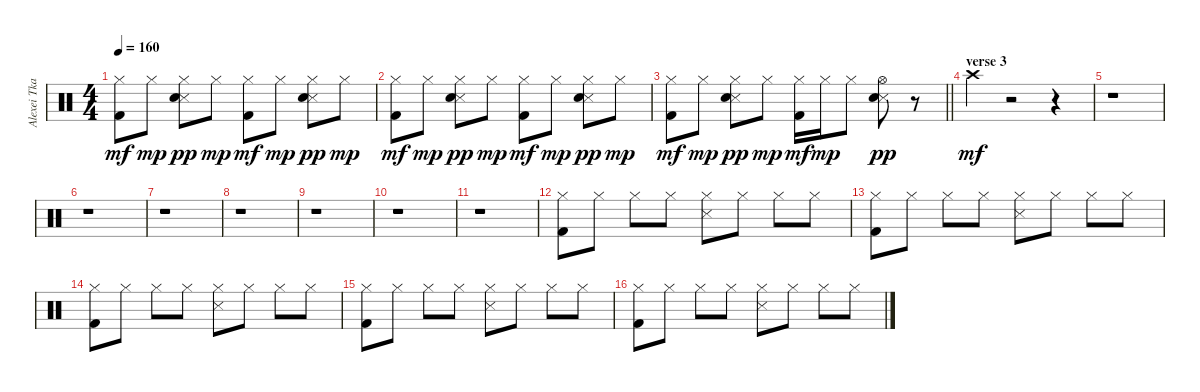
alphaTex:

\track ("Alexei Tkachevskiy " "Alexei Tka") {instrument percussion}
\staff {score}
\articulation defaults
\ts (4 4)
\tempo 160
\clef neutral
\ks c
("Hi-Hat (closed)" "Kick (hit) 2").8{dy mf} "Hi-Hat (closed)".8{dy mp} ("Hi-Hat (closed)" "Snare (side stick) 3" "Snare (hit) 2").8{dy pp} "Hi-Hat (closed)".8{dy mp} ("Hi-Hat (closed)" "Kick (hit) 2").8{dy mf} "Hi-Hat (closed)".8{dy mp} ("Hi-Hat (closed)" "Snare (side stick) 3" "Snare (hit) 2").8{dy pp} "Hi-Hat (closed)".8{dy mp} |
("Hi-Hat (closed)" "Kick (hit) 2").8{dy mf} "Hi-Hat (closed)".8{dy mp} ("Hi-Hat (closed)" "Snare (side stick) 3" "Snare (hit) 2").8{dy pp} "Hi-Hat (closed)".8{dy mp} ("Hi-Hat (closed)" "Kick (hit) 2").8{dy mf} "Hi-Hat (closed)".8{dy mp} ("Hi-Hat (closed)" "Snare (side stick) 3" "Snare (hit) 2").8{dy pp} "Hi-Hat (closed)".8{dy mp} |
\barLineRight lightlight
("Hi-Hat (closed)" "Kick (hit) 2").8{dy mf} "Hi-Hat (closed)".8{dy mp} ("Hi-Hat (closed)" "Snare (side stick) 3" "Snare (hit) 2").8{dy pp} "Hi-Hat (closed)".8{dy mp} ("Hi-Hat (closed)" "Kick (hit) 2").16{dy mf} "Hi-Hat (closed)".16{dy mp} "Hi-Hat (closed)".8 ("Hi-Hat (open)" "Snare (side stick) 3" "Snare (hit) 2").8{dy pp} r.8 |
\section ("" "verse 3")
"Crash high (hit)".4{dy mf} r.2 r.4 |
r.1 |
r.1 |
r.1 |
r.1 |
r.1 |
r.1 |
r.1 |
("Hi-Hat (closed)" "Kick (hit) 2").8 "Hi-Hat (closed)".8 "Hi-Hat (closed)".8 "Hi-Hat (closed)".8 ("Hi-Hat (closed)" "Snare (side stick) 3").8 "Hi-Hat (closed)".8 "Hi-Hat (closed)".8 "Hi-Hat (closed)".8 |
("Hi-Hat (closed)" "Kick (hit) 2").8 "Hi-Hat (closed)".8 "Hi-Hat (closed)".8 "Hi-Hat (closed)".8 ("Hi-Hat (closed)" "Snare (side stick) 3").8 "Hi-Hat (closed)".8 "Hi-Hat (closed)".8 "Hi-Hat (closed)".8 |
("Hi-Hat (closed)" "Kick (hit) 2").8 "Hi-Hat (closed)".8 "Hi-Hat (closed)".8 "Hi-Hat (closed)".8 ("Hi-Hat (closed)" "Snare (side stick) 3").8 "Hi-Hat (closed)".8 "Hi-Hat (closed)".8 "Hi-Hat (closed)".8 |
("Hi-Hat (closed)" "Kick (hit) 2").8 "Hi-Hat (closed)".8 "Hi-Hat (closed)".8 "Hi-Hat (closed)".8 ("Hi-Hat (closed)" "Snare (side stick) 3").8 "Hi-Hat (closed)".8 "Hi-Hat (closed)".8 "Hi-Hat (closed)".8 |
("Hi-Hat (closed)" "Kick (hit) 2").8 "Hi-Hat (closed)".8 "Hi-Hat (closed)".8 "Hi-Hat (closed)".8 ("Hi-Hat (closed)" "Snare (side stick) 3").8 "Hi-Hat (closed)".8 "Hi-Hat (closed)".8 "Hi-Hat (closed)".8
